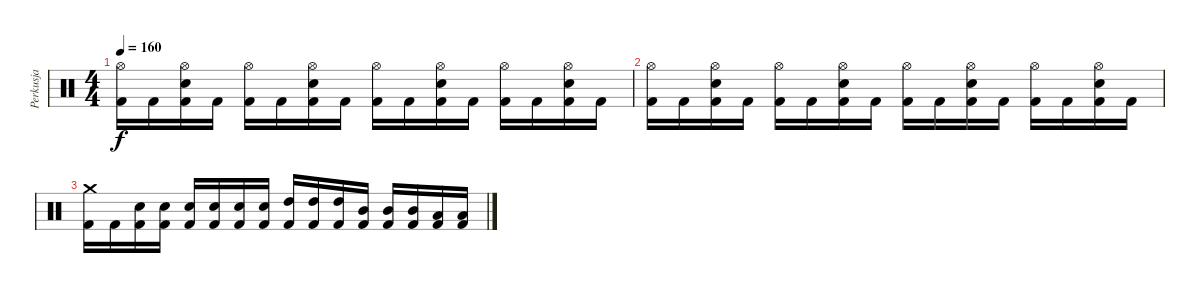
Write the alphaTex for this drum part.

\track ("Perkusja" "Perkusja") {instrument percussion}
\staff {score}
\articulation defaults
\ts (4 4)
\tempo 160
\clef neutral
\ks c
("Hi-Hat (open)" "Kick (hit) 2").16{dy f} "Kick (hit) 2".16 ("Hi-Hat (open)" "Snare (hit) 2" "Kick (hit) 2").16 "Kick (hit) 2".16 ("Hi-Hat (open)" "Kick (hit) 2").16 "Kick (hit) 2".16 ("Hi-Hat (open)" "Snare (hit) 2" "Kick (hit) 2").16 "Kick (hit) 2".16 ("Hi-Hat (open)" "Kick (hit) 2").16 "Kick (hit) 2".16 ("Hi-Hat (open)" "Snare (hit) 2" "Kick (hit) 2").16 "Kick (hit) 2".16 ("Hi-Hat (open)" "Kick (hit) 2").16 "Kick (hit) 2".16 ("Hi-Hat (open)" "Snare (hit) 2" "Kick (hit) 2").16 "Kick (hit) 2".16 |
("Hi-Hat (open)" "Kick (hit) 2").16 "Kick (hit) 2".16 ("Hi-Hat (open)" "Snare (hit) 2" "Kick (hit) 2").16 "Kick (hit) 2".16 ("Hi-Hat (open)" "Kick (hit) 2").16 "Kick (hit) 2".16 ("Hi-Hat (open)" "Snare (hit) 2" "Kick (hit) 2").16 "Kick (hit) 2".16 ("Hi-Hat (open)" "Kick (hit) 2").16 "Kick (hit) 2".16 ("Hi-Hat (open)" "Snare (hit) 2" "Kick (hit) 2").16 "Kick (hit) 2".16 ("Hi-Hat (open)" "Kick (hit) 2").16 "Kick (hit) 2".16 ("Hi-Hat (open)" "Snare (hit) 2" "Kick (hit) 2").16 "Kick (hit) 2".16 |
("Crash medium (hit)" "Kick (hit) 2").16 "Kick (hit) 2".16 ("Snare (hit) 2" "Kick (hit) 2").16 ("Snare (hit) 2" "Kick (hit) 2").16 ("Snare (hit) 2" "Kick (hit) 2").16 ("Snare (hit) 2" "Kick (hit) 2").16 ("Snare (hit) 2" "Kick (hit) 2").16 ("Snare (hit) 2" "Kick (hit) 2").16 ("High Tom (hit)" "Kick (hit) 2").16 ("High Tom (hit)" "Kick (hit) 2").16 ("High Tom (hit)" "Kick (hit) 2").16 ("Mid Tom (hit)" "Kick (hit) 2").16 ("Mid Tom (hit)" "Kick (hit) 2").16 ("Mid Tom (hit)" "Kick (hit) 2").16 ("Low Tom (hit)" "Kick (hit) 2").16 ("Low Tom (hit)" "Kick (hit) 2").16
